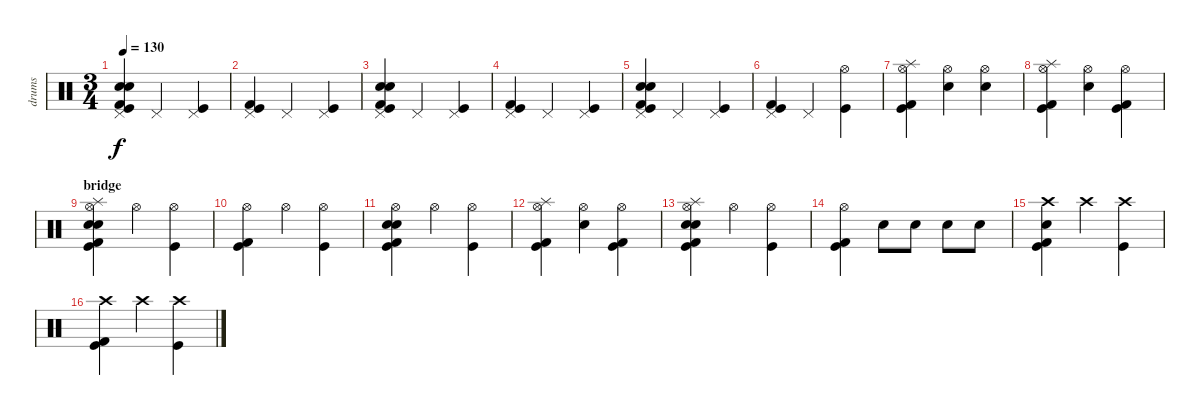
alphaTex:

\track ("drums" "drums") {instrument percussion}
\staff {score}
\articulation defaults
\ts (3 4)
\tempo 130
\clef neutral
\ks c
("Pedal Hi-Hat (hit)" "Electric Snare (hit)" "Snare (hit) 2" "Kick (hit) 2" "Kick (hit)").4{dy f} "Pedal Hi-Hat (hit)".4 ("Pedal Hi-Hat (hit)" "Kick (hit)").4 |
("Pedal Hi-Hat (hit)" "Kick (hit) 2" "Kick (hit)").4 "Pedal Hi-Hat (hit)".4 ("Pedal Hi-Hat (hit)" "Kick (hit)").4 |
("Pedal Hi-Hat (hit)" "Electric Snare (hit)" "Snare (hit) 2" "Kick (hit) 2" "Kick (hit)").4 "Pedal Hi-Hat (hit)".4 ("Pedal Hi-Hat (hit)" "Kick (hit)").4 |
("Pedal Hi-Hat (hit)" "Kick (hit) 2" "Kick (hit)").4 "Pedal Hi-Hat (hit)".4 ("Pedal Hi-Hat (hit)" "Kick (hit)").4 |
("Pedal Hi-Hat (hit)" "Electric Snare (hit)" "Snare (hit) 2" "Kick (hit) 2" "Kick (hit)").4 "Pedal Hi-Hat (hit)".4 ("Pedal Hi-Hat (hit)" "Kick (hit)").4 |
("Pedal Hi-Hat (hit)" "Kick (hit) 2" "Kick (hit)").4 "Pedal Hi-Hat (hit)".4 ("Hi-Hat (open)" "Kick (hit)").4 |
("Hi-Hat (open)" "Splash (hit)" "Kick (hit) 2" "Kick (hit)").4 ("Hi-Hat (open)" "Snare (hit) 2").4 ("Hi-Hat (open)" "Snare (hit) 2").4 |
("Hi-Hat (open)" "Splash (hit)" "Kick (hit) 2" "Kick (hit)").4 ("Hi-Hat (open)" "Snare (hit) 2").4 ("Hi-Hat (open)" "Kick (hit) 2" "Kick (hit)").4 |
\section ("" "bridge")
("Hi-Hat (open)" "Electric Snare (hit)" "Snare (hit) 2" "Splash (hit)" "Kick (hit) 2" "Kick (hit)").4 "Hi-Hat (open)".4 ("Hi-Hat (open)" "Kick (hit)").4 |
("Hi-Hat (open)" "Kick (hit) 2" "Kick (hit)").4 "Hi-Hat (open)".4 ("Hi-Hat (open)" "Kick (hit)").4 |
("Hi-Hat (open)" "Electric Snare (hit)" "Snare (hit) 2" "Kick (hit) 2" "Kick (hit)").4 "Hi-Hat (open)".4 ("Hi-Hat (open)" "Kick (hit)").4 |
("Hi-Hat (open)" "Splash (hit)" "Kick (hit) 2" "Kick (hit)").4 ("Hi-Hat (open)" "Snare (hit) 2").4 ("Hi-Hat (open)" "Kick (hit) 2" "Kick (hit)").4 |
("Hi-Hat (open)" "Electric Snare (hit)" "Snare (hit) 2" "Splash (hit)" "Kick (hit) 2" "Kick (hit)").4 "Hi-Hat (open)".4 ("Hi-Hat (open)" "Kick (hit)").4 |
("Hi-Hat (open)" "Kick (hit) 2" "Kick (hit)").4 "Snare (hit) 2".8 "Snare (hit) 2".8 "Snare (hit) 2".8 "Snare (hit) 2".8 |
("Crash high (hit)" "Snare (hit) 2" "Kick (hit) 2" "Kick (hit)").4 "Crash high (hit)".4 ("Crash high (hit)" "Kick (hit)").4 |
("Crash high (hit)" "Kick (hit) 2" "Kick (hit)").4 "Crash high (hit)".4 ("Crash high (hit)" "Kick (hit)").4
